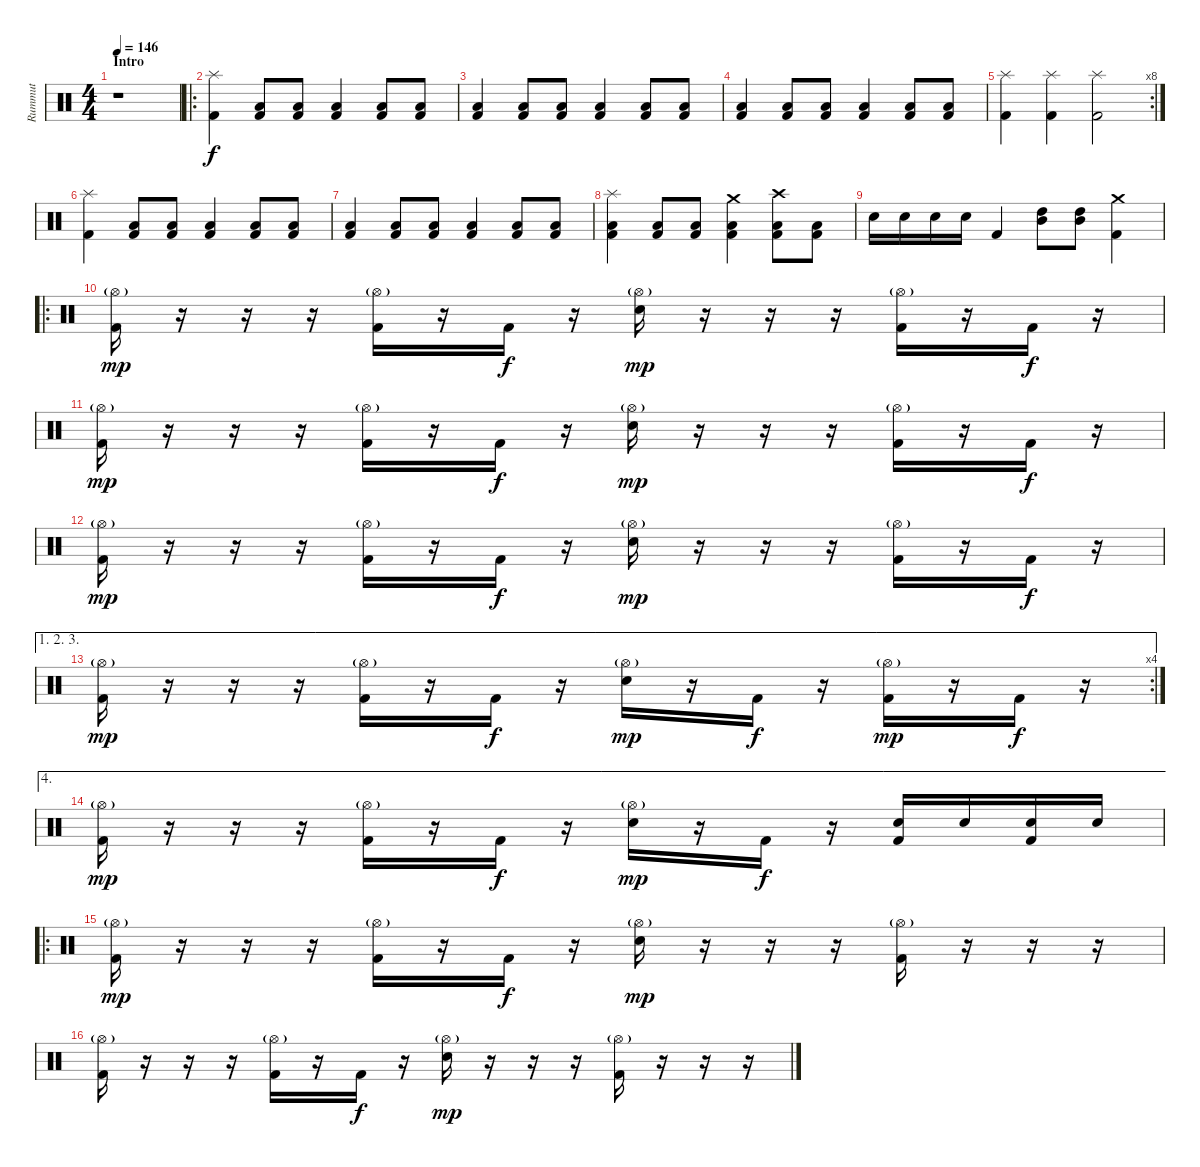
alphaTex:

\track ("Rummut" "Rummut") {instrument percussion}
\staff {score}
\articulation defaults
\ts (4 4)
\section ("" "Intro")
\tempo 146
\clef neutral
\ks c
r.1{dy f} |
\ro
("Splash (hit)" "Kick (hit) 2").4 ("Low Floor Tom (hit)" "Kick (hit) 2").8 ("Low Floor Tom (hit)" "Kick (hit) 2").8 ("Low Floor Tom (hit)" "Kick (hit) 2").4 ("Low Floor Tom (hit)" "Kick (hit) 2").8 ("Low Floor Tom (hit)" "Kick (hit) 2").8 |
("Low Floor Tom (hit)" "Kick (hit) 2").4 ("Low Floor Tom (hit)" "Kick (hit) 2").8 ("Low Floor Tom (hit)" "Kick (hit) 2").8 ("Low Floor Tom (hit)" "Kick (hit) 2").4 ("Low Floor Tom (hit)" "Kick (hit) 2").8 ("Low Floor Tom (hit)" "Kick (hit) 2").8 |
("Low Floor Tom (hit)" "Kick (hit) 2").4 ("Low Floor Tom (hit)" "Kick (hit) 2").8 ("Low Floor Tom (hit)" "Kick (hit) 2").8 ("Low Floor Tom (hit)" "Kick (hit) 2").4 ("Low Floor Tom (hit)" "Kick (hit) 2").8 ("Low Floor Tom (hit)" "Kick (hit) 2").8 |
\rc 8
("Splash (hit)" "Kick (hit) 2").4 ("Splash (hit)" "Kick (hit) 2").4 ("Splash (hit)" "Kick (hit) 2").2 |
("Splash (hit)" "Kick (hit) 2").4 ("Low Floor Tom (hit)" "Kick (hit) 2").8 ("Low Floor Tom (hit)" "Kick (hit) 2").8 ("Low Floor Tom (hit)" "Kick (hit) 2").4 ("Low Floor Tom (hit)" "Kick (hit) 2").8 ("Low Floor Tom (hit)" "Kick (hit) 2").8 |
("Low Floor Tom (hit)" "Kick (hit) 2").4 ("Low Floor Tom (hit)" "Kick (hit) 2").8 ("Low Floor Tom (hit)" "Kick (hit) 2").8 ("Low Floor Tom (hit)" "Kick (hit) 2").4 ("Low Floor Tom (hit)" "Kick (hit) 2").8 ("Low Floor Tom (hit)" "Kick (hit) 2").8 |
("Splash (hit)" "Low Floor Tom (hit)" "Kick (hit) 2").4 ("Low Floor Tom (hit)" "Kick (hit) 2").8 ("Low Floor Tom (hit)" "Kick (hit) 2").8 ("Crash medium (hit)" "Low Floor Tom (hit)" "Kick (hit) 2").4 ("Crash high (hit)" "Low Floor Tom (hit)" "Kick (hit) 2").8 ("Low Floor Tom (hit)" "Kick (hit) 2").8 |
"Electric Snare (hit)".16 "Electric Snare (hit)".16 "Electric Snare (hit)".16 "Electric Snare (hit)".16 "Kick (hit) 2".4 ("Mid Tom (hit)" "High Tom (hit)").8 ("Mid Tom (hit)" "High Tom (hit)").8 ("Crash medium (hit)" "Kick (hit) 2").4 |
\ro
("Hi-Hat (open)"{g} "Kick (hit) 2").16{dy mp} r.16 r.16 r.16 ("Hi-Hat (open)"{g} "Kick (hit) 2").16 r.16 "Kick (hit) 2".16{dy f} r.16 ("Hi-Hat (open)"{g} "Electric Snare (hit)").16{dy mp} r.16 r.16 r.16 ("Hi-Hat (open)"{g} "Kick (hit) 2").16 r.16 "Kick (hit) 2".16{dy f} r.16 |
("Hi-Hat (open)"{g} "Kick (hit) 2").16{dy mp} r.16 r.16 r.16 ("Hi-Hat (open)"{g} "Kick (hit) 2").16 r.16 "Kick (hit) 2".16{dy f} r.16 ("Hi-Hat (open)"{g} "Electric Snare (hit)").16{dy mp} r.16 r.16 r.16 ("Hi-Hat (open)"{g} "Kick (hit) 2").16 r.16 "Kick (hit) 2".16{dy f} r.16 |
("Hi-Hat (open)"{g} "Kick (hit) 2").16{dy mp} r.16 r.16 r.16 ("Hi-Hat (open)"{g} "Kick (hit) 2").16 r.16 "Kick (hit) 2".16{dy f} r.16 ("Hi-Hat (open)"{g} "Electric Snare (hit)").16{dy mp} r.16 r.16 r.16 ("Hi-Hat (open)"{g} "Kick (hit) 2").16 r.16 "Kick (hit) 2".16{dy f} r.16 |
\ae (1 2 3)
\rc 4
("Hi-Hat (open)"{g} "Kick (hit) 2").16{dy mp} r.16 r.16 r.16 ("Hi-Hat (open)"{g} "Kick (hit) 2").16 r.16 "Kick (hit) 2".16{dy f} r.16 ("Hi-Hat (open)"{g} "Electric Snare (hit)").16{dy mp} r.16 "Kick (hit) 2".16{dy f} r.16 ("Hi-Hat (open)"{g} "Kick (hit) 2").16{dy mp} r.16 "Kick (hit) 2".16{dy f} r.16 |
\ae 4
("Hi-Hat (open)"{g} "Kick (hit) 2").16{dy mp} r.16 r.16 r.16 ("Hi-Hat (open)"{g} "Kick (hit) 2").16 r.16 "Kick (hit) 2".16{dy f} r.16 ("Hi-Hat (open)"{g} "Electric Snare (hit)").16{dy mp} r.16 "Kick (hit) 2".16{dy f} r.16 ("Electric Snare (hit)" "Kick (hit) 2").16 "Electric Snare (hit)".16 ("Electric Snare (hit)" "Kick (hit) 2").16 "Electric Snare (hit)".16 |
\ro
\section ("" "")
("Hi-Hat (open)"{g} "Kick (hit) 2").16{dy mp} r.16 r.16 r.16 ("Hi-Hat (open)"{g} "Kick (hit) 2").16 r.16 "Kick (hit) 2".16{dy f} r.16 ("Hi-Hat (open)"{g} "Electric Snare (hit)").16{dy mp} r.16 r.16 r.16 ("Hi-Hat (open)"{g} "Kick (hit) 2").16 r.16 r.16 r.16 |
("Hi-Hat (open)"{g} "Kick (hit) 2").16 r.16 r.16 r.16 ("Hi-Hat (open)"{g} "Kick (hit) 2").16 r.16 "Kick (hit) 2".16{dy f} r.16 ("Hi-Hat (open)"{g} "Electric Snare (hit)").16{dy mp} r.16 r.16 r.16 ("Hi-Hat (open)"{g} "Kick (hit) 2").16 r.16 r.16 r.16
